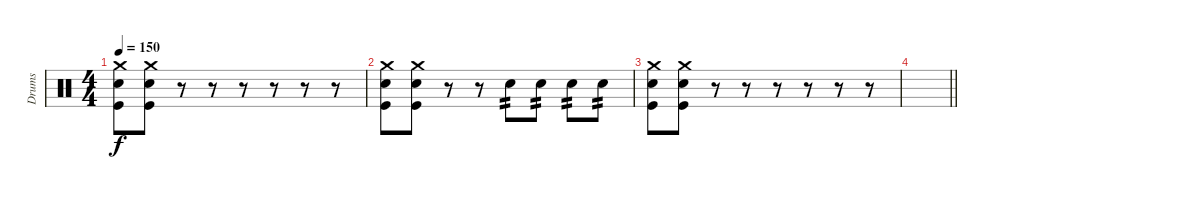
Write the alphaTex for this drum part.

\track ("Drums" "Drums") {instrument percussion}
\staff {score}
\articulation defaults
\ts (4 4)
\tempo 150
\clef neutral
\ks c
("Crash medium (hit)" "Electric Snare (hit)" "Kick (hit)").8{dy f} ("Crash medium (hit)" "Electric Snare (hit)" "Kick (hit)").8 r.8 r.8 r.8 r.8 r.8 r.8 |
("Crash medium (hit)" "Electric Snare (hit)" "Kick (hit)").8 ("Crash medium (hit)" "Electric Snare (hit)" "Kick (hit)").8 r.8 r.8 "Electric Snare (hit)".8{tp 2} "Electric Snare (hit)".8{tp 2} "Electric Snare (hit)".8{tp 2} "Electric Snare (hit)".8{tp 2} |
("Crash medium (hit)" "Electric Snare (hit)" "Kick (hit)").8 ("Crash medium (hit)" "Electric Snare (hit)" "Kick (hit)").8 r.8 r.8 r.8 r.8 r.8 r.8 |
\barLineRight lightlight
